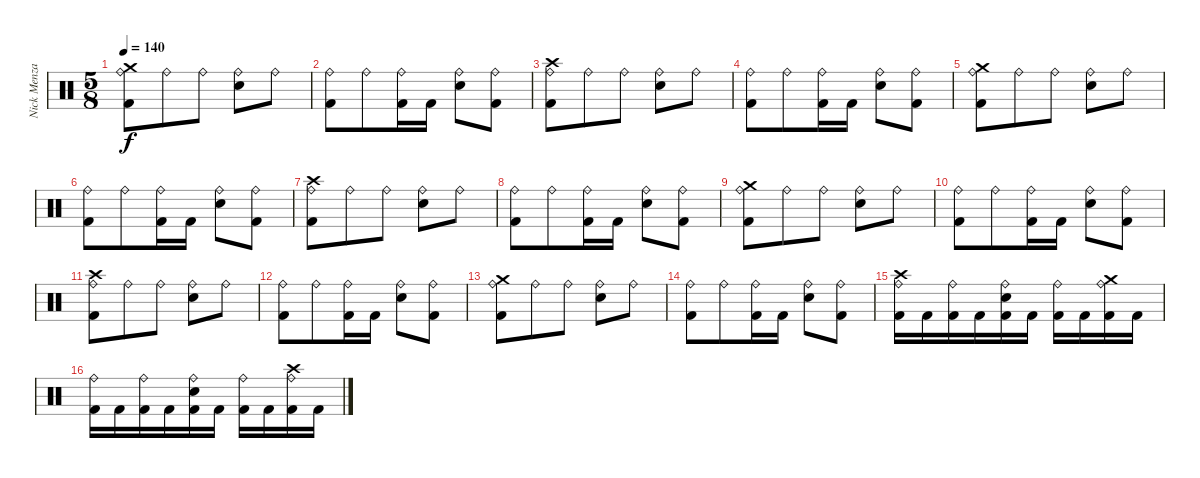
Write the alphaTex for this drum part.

\track ("Nick Menza" "Nick Menza") {instrument percussion}
\staff {score}
\articulation defaults
\ts (5 8)
\tempo 140
\clef neutral
\ks c
("Ride (bell)" "Crash medium (hit)" "Kick (hit) 2").8{dy f} "Ride (bell)".8 "Ride (bell)".8 ("Ride (bell)" "Electric Snare (hit)").8 "Ride (bell)".8 |
("Ride (bell)" "Kick (hit) 2").8 "Ride (bell)".8 ("Ride (bell)" "Kick (hit) 2").16 "Kick (hit) 2".16 ("Ride (bell)" "Electric Snare (hit)").8 ("Ride (bell)" "Kick (hit) 2").8 |
("Ride (bell)" "Crash high (hit)" "Kick (hit) 2").8 "Ride (bell)".8 "Ride (bell)".8 ("Ride (bell)" "Electric Snare (hit)").8 "Ride (bell)".8 |
("Ride (bell)" "Kick (hit) 2").8 "Ride (bell)".8 ("Ride (bell)" "Kick (hit) 2").16 "Kick (hit) 2".16 ("Ride (bell)" "Electric Snare (hit)").8 ("Ride (bell)" "Kick (hit) 2").8 |
("Ride (bell)" "Crash medium (hit)" "Kick (hit) 2").8 "Ride (bell)".8 "Ride (bell)".8 ("Ride (bell)" "Electric Snare (hit)").8 "Ride (bell)".8 |
("Ride (bell)" "Kick (hit) 2").8 "Ride (bell)".8 ("Ride (bell)" "Kick (hit) 2").16 "Kick (hit) 2".16 ("Ride (bell)" "Electric Snare (hit)").8 ("Ride (bell)" "Kick (hit) 2").8 |
("Ride (bell)" "Crash high (hit)" "Kick (hit) 2").8 "Ride (bell)".8 "Ride (bell)".8 ("Ride (bell)" "Electric Snare (hit)").8 "Ride (bell)".8 |
("Ride (bell)" "Kick (hit) 2").8 "Ride (bell)".8 ("Ride (bell)" "Kick (hit) 2").16 "Kick (hit) 2".16 ("Ride (bell)" "Electric Snare (hit)").8 ("Ride (bell)" "Kick (hit) 2").8 |
("Ride (bell)" "Crash medium (hit)" "Kick (hit) 2").8 "Ride (bell)".8 "Ride (bell)".8 ("Ride (bell)" "Electric Snare (hit)").8 "Ride (bell)".8 |
("Ride (bell)" "Kick (hit) 2").8 "Ride (bell)".8 ("Ride (bell)" "Kick (hit) 2").16 "Kick (hit) 2".16 ("Ride (bell)" "Electric Snare (hit)").8 ("Ride (bell)" "Kick (hit) 2").8 |
("Ride (bell)" "Crash high (hit)" "Kick (hit) 2").8 "Ride (bell)".8 "Ride (bell)".8 ("Ride (bell)" "Electric Snare (hit)").8 "Ride (bell)".8 |
("Ride (bell)" "Kick (hit) 2").8 "Ride (bell)".8 ("Ride (bell)" "Kick (hit) 2").16 "Kick (hit) 2".16 ("Ride (bell)" "Electric Snare (hit)").8 ("Ride (bell)" "Kick (hit) 2").8 |
("Ride (bell)" "Crash medium (hit)" "Kick (hit) 2").8 "Ride (bell)".8 "Ride (bell)".8 ("Ride (bell)" "Electric Snare (hit)").8 "Ride (bell)".8 |
("Ride (bell)" "Kick (hit) 2").8 "Ride (bell)".8 ("Ride (bell)" "Kick (hit) 2").16 "Kick (hit) 2".16 ("Ride (bell)" "Electric Snare (hit)").8 ("Ride (bell)" "Kick (hit) 2").8 |
("Ride (bell)" "Crash high (hit)" "Kick (hit) 2").16 "Kick (hit) 2".16 ("Ride (bell)" "Kick (hit) 2").16 "Kick (hit) 2".16 ("Ride (bell)" "Electric Snare (hit)" "Kick (hit) 2").16 "Kick (hit) 2".16 ("Ride (bell)" "Kick (hit) 2").16 "Kick (hit) 2".16 ("Ride (bell)" "Crash medium (hit)" "Kick (hit) 2").16 "Kick (hit) 2".16 |
("Ride (bell)" "Kick (hit) 2").16 "Kick (hit) 2".16 ("Ride (bell)" "Kick (hit) 2").16 "Kick (hit) 2".16 ("Ride (bell)" "Electric Snare (hit)" "Kick (hit) 2").16 "Kick (hit) 2".16 ("Ride (bell)" "Kick (hit) 2").16 "Kick (hit) 2".16 ("Ride (bell)" "Crash high (hit)" "Kick (hit) 2").16 "Kick (hit) 2".16
